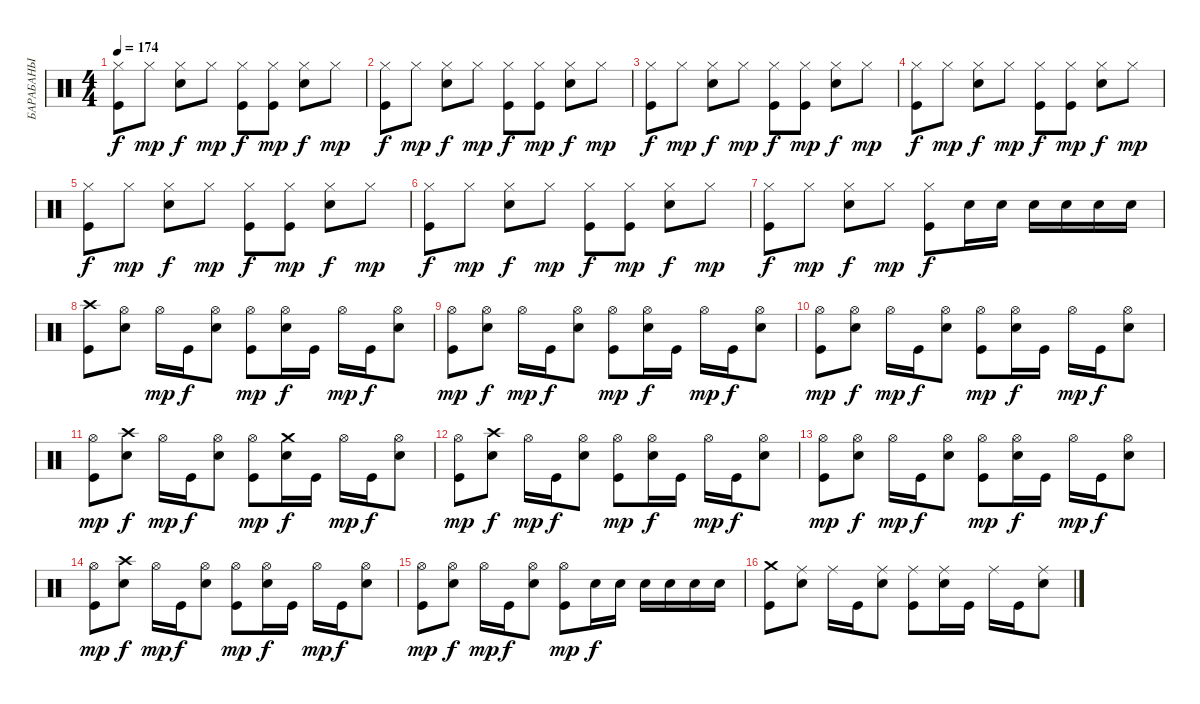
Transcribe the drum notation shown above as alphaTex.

\track ("БАРАБАНЫ" "БАРАБАНЫ") {instrument percussion}
\staff {score}
\articulation defaults
\ts (4 4)
\tempo 174
\clef neutral
\ks c
("Hi-Hat (closed)" "Kick (hit)").8{dy f} "Hi-Hat (closed)".8{dy mp} ("Hi-Hat (closed)" "Electric Snare (hit)").8{dy f} "Hi-Hat (closed)".8{dy mp} ("Hi-Hat (closed)" "Kick (hit)").8{dy f} ("Hi-Hat (closed)" "Kick (hit)").8{dy mp} ("Hi-Hat (closed)" "Electric Snare (hit)").8{dy f} "Hi-Hat (closed)".8{dy mp} |
("Hi-Hat (closed)" "Kick (hit)").8{dy f} "Hi-Hat (closed)".8{dy mp} ("Hi-Hat (closed)" "Electric Snare (hit)").8{dy f} "Hi-Hat (closed)".8{dy mp} ("Hi-Hat (closed)" "Kick (hit)").8{dy f} ("Hi-Hat (closed)" "Kick (hit)").8{dy mp} ("Hi-Hat (closed)" "Electric Snare (hit)").8{dy f} "Hi-Hat (closed)".8{dy mp} |
("Hi-Hat (closed)" "Kick (hit)").8{dy f} "Hi-Hat (closed)".8{dy mp} ("Hi-Hat (closed)" "Electric Snare (hit)").8{dy f} "Hi-Hat (closed)".8{dy mp} ("Hi-Hat (closed)" "Kick (hit)").8{dy f} ("Hi-Hat (closed)" "Kick (hit)").8{dy mp} ("Hi-Hat (closed)" "Electric Snare (hit)").8{dy f} "Hi-Hat (closed)".8{dy mp} |
("Hi-Hat (closed)" "Kick (hit)").8{dy f} "Hi-Hat (closed)".8{dy mp} ("Hi-Hat (closed)" "Electric Snare (hit)").8{dy f} "Hi-Hat (closed)".8{dy mp} ("Hi-Hat (closed)" "Kick (hit)").8{dy f} ("Hi-Hat (closed)" "Kick (hit)").8{dy mp} ("Hi-Hat (closed)" "Electric Snare (hit)").8{dy f} "Hi-Hat (closed)".8{dy mp} |
("Hi-Hat (closed)" "Kick (hit)").8{dy f} "Hi-Hat (closed)".8{dy mp} ("Hi-Hat (closed)" "Electric Snare (hit)").8{dy f} "Hi-Hat (closed)".8{dy mp} ("Hi-Hat (closed)" "Kick (hit)").8{dy f} ("Hi-Hat (closed)" "Kick (hit)").8{dy mp} ("Hi-Hat (closed)" "Electric Snare (hit)").8{dy f} "Hi-Hat (closed)".8{dy mp} |
("Hi-Hat (closed)" "Kick (hit)").8{dy f} "Hi-Hat (closed)".8{dy mp} ("Hi-Hat (closed)" "Electric Snare (hit)").8{dy f} "Hi-Hat (closed)".8{dy mp} ("Hi-Hat (closed)" "Kick (hit)").8{dy f} ("Hi-Hat (closed)" "Kick (hit)").8{dy mp} ("Hi-Hat (closed)" "Electric Snare (hit)").8{dy f} "Hi-Hat (closed)".8{dy mp} |
("Hi-Hat (closed)" "Kick (hit)").8{dy f} "Hi-Hat (closed)".8{dy mp} ("Hi-Hat (closed)" "Electric Snare (hit)").8{dy f} "Hi-Hat (closed)".8{dy mp} ("Hi-Hat (closed)" "Kick (hit)").8{dy f} "Electric Snare (hit)".16 "Electric Snare (hit)".16 "Electric Snare (hit)".16 "Electric Snare (hit)".16 "Electric Snare (hit)".16 "Electric Snare (hit)".16 |
("Crash high (hit)" "Kick (hit)").8 ("Hi-Hat (open)" "Electric Snare (hit)").8 "Hi-Hat (open)".16{dy mp} "Kick (hit)".16{dy f} ("Hi-Hat (open)" "Electric Snare (hit)").8 ("Hi-Hat (open)" "Kick (hit)").8{dy mp} ("Hi-Hat (open)" "Electric Snare (hit)").16{dy f} "Kick (hit)".16 "Hi-Hat (open)".16{dy mp} "Kick (hit)".16{dy f} ("Hi-Hat (open)" "Electric Snare (hit)").8 |
("Hi-Hat (open)" "Kick (hit)").8{dy mp} ("Hi-Hat (open)" "Electric Snare (hit)").8{dy f} "Hi-Hat (open)".16{dy mp} "Kick (hit)".16{dy f} ("Hi-Hat (open)" "Electric Snare (hit)").8 ("Hi-Hat (open)" "Kick (hit)").8{dy mp} ("Hi-Hat (open)" "Electric Snare (hit)").16{dy f} "Kick (hit)".16 "Hi-Hat (open)".16{dy mp} "Kick (hit)".16{dy f} ("Hi-Hat (open)" "Electric Snare (hit)").8 |
("Hi-Hat (open)" "Kick (hit)").8{dy mp} ("Hi-Hat (open)" "Electric Snare (hit)").8{dy f} "Hi-Hat (open)".16{dy mp} "Kick (hit)".16{dy f} ("Hi-Hat (open)" "Electric Snare (hit)").8 ("Hi-Hat (open)" "Kick (hit)").8{dy mp} ("Hi-Hat (open)" "Electric Snare (hit)").16{dy f} "Kick (hit)".16 "Hi-Hat (open)".16{dy mp} "Kick (hit)".16{dy f} ("Hi-Hat (open)" "Electric Snare (hit)").8 |
("Hi-Hat (open)" "Kick (hit)").8{dy mp} ("Crash high (hit)" "Electric Snare (hit)").8{dy f} "Hi-Hat (open)".16{dy mp} "Kick (hit)".16{dy f} ("Hi-Hat (open)" "Electric Snare (hit)").8 ("Hi-Hat (open)" "Kick (hit)").8{dy mp} ("Crash medium (hit)" "Electric Snare (hit)").16{dy f} "Kick (hit)".16 "Hi-Hat (open)".16{dy mp} "Kick (hit)".16{dy f} ("Hi-Hat (open)" "Electric Snare (hit)").8 |
("Hi-Hat (open)" "Kick (hit)").8{dy mp} ("Crash high (hit)" "Electric Snare (hit)").8{dy f} "Hi-Hat (open)".16{dy mp} "Kick (hit)".16{dy f} ("Hi-Hat (open)" "Electric Snare (hit)").8 ("Hi-Hat (open)" "Kick (hit)").8{dy mp} ("Hi-Hat (open)" "Electric Snare (hit)").16{dy f} "Kick (hit)".16 "Hi-Hat (open)".16{dy mp} "Kick (hit)".16{dy f} ("Hi-Hat (open)" "Electric Snare (hit)").8 |
("Hi-Hat (open)" "Kick (hit)").8{dy mp} ("Hi-Hat (open)" "Electric Snare (hit)").8{dy f} "Hi-Hat (open)".16{dy mp} "Kick (hit)".16{dy f} ("Hi-Hat (open)" "Electric Snare (hit)").8 ("Hi-Hat (open)" "Kick (hit)").8{dy mp} ("Hi-Hat (open)" "Electric Snare (hit)").16{dy f} "Kick (hit)".16 "Hi-Hat (open)".16{dy mp} "Kick (hit)".16{dy f} ("Hi-Hat (open)" "Electric Snare (hit)").8 |
("Hi-Hat (open)" "Kick (hit)").8{dy mp} ("Crash high (hit)" "Electric Snare (hit)").8{dy f} "Hi-Hat (open)".16{dy mp} "Kick (hit)".16{dy f} ("Hi-Hat (open)" "Electric Snare (hit)").8 ("Hi-Hat (open)" "Kick (hit)").8{dy mp} ("Hi-Hat (open)" "Electric Snare (hit)").16{dy f} "Kick (hit)".16 "Hi-Hat (open)".16{dy mp} "Kick (hit)".16{dy f} ("Hi-Hat (open)" "Electric Snare (hit)").8 |
("Hi-Hat (open)" "Kick (hit)").8{dy mp} ("Hi-Hat (open)" "Electric Snare (hit)").8{dy f} "Hi-Hat (open)".16{dy mp} "Kick (hit)".16{dy f} ("Hi-Hat (open)" "Electric Snare (hit)").8 ("Hi-Hat (open)" "Kick (hit)").8{dy mp} "Electric Snare (hit)".16{dy f} "Electric Snare (hit)".16 "Electric Snare (hit)".16 "Electric Snare (hit)".16 "Electric Snare (hit)".16 "Electric Snare (hit)".16 |
("Crash medium (hit)" "Kick (hit)").8 ("Ride (middle)" "Electric Snare (hit)").8 "Ride (middle)".16 "Kick (hit)".16 ("Ride (middle)" "Electric Snare (hit)").8 ("Ride (middle)" "Kick (hit)").8 ("Ride (middle)" "Electric Snare (hit)").16 "Kick (hit)".16 "Ride (middle)".16 "Kick (hit)".16 ("Ride (middle)" "Electric Snare (hit)").8
